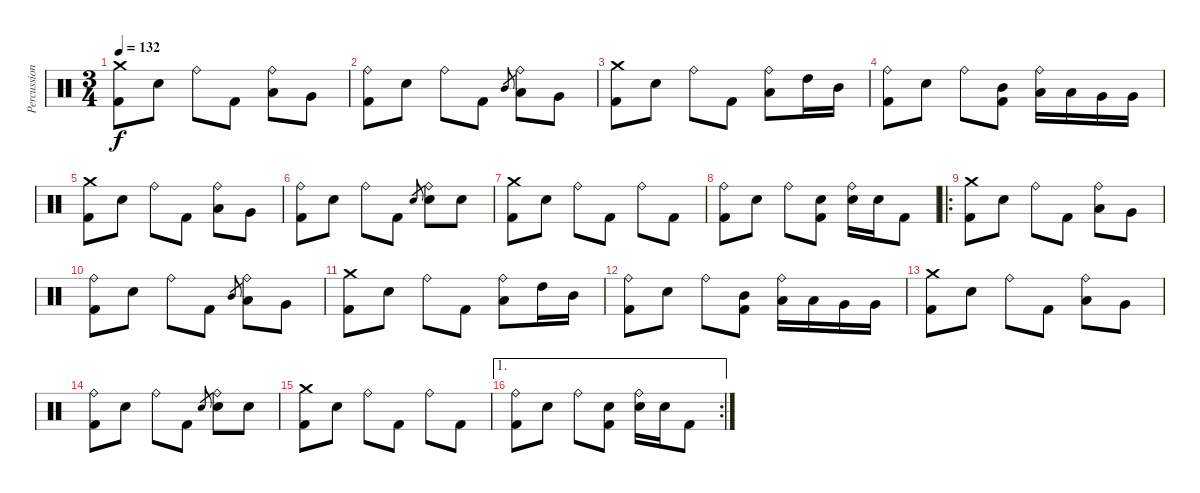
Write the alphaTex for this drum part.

\track ("Percussion" "Percussion") {instrument percussion}
\staff {score}
\articulation defaults
\ts (3 4)
\tempo 132
\clef neutral
\ks c
("Crash medium (hit)" "Kick (hit) 2").8{dy f} "Electric Snare (hit)".8 "Ride (bell)".8 "Kick (hit) 2".8 ("Ride (bell)" "Low Tom (hit)").8 "Very Low Tom (hit)".8 |
("Ride (bell)" "Kick (hit) 2").8 "Electric Snare (hit)".8 "Ride (bell)".8 "Kick (hit) 2".8 "Mid Tom (hit)".8{gr} ("Ride (bell)" "Low Tom (hit)").8 "Very Low Tom (hit)".8 |
("Crash medium (hit)" "Kick (hit) 2").8 "Electric Snare (hit)".8 "Ride (bell)".8 "Kick (hit) 2".8 ("Ride (bell)" "Low Tom (hit)").8 "High Tom (hit)".16 "Mid Tom (hit)".16 |
("Ride (bell)" "Kick (hit) 2").8 "Electric Snare (hit)".8 "Ride (bell)".8 ("Mid Tom (hit)" "Kick (hit) 2").8 ("Ride (bell)" "Low Tom (hit)").16 "Low Tom (hit)".16 "Very Low Tom (hit)".16 "Very Low Tom (hit)".16 |
("Crash medium (hit)" "Kick (hit) 2").8 "Electric Snare (hit)".8 "Ride (bell)".8 "Kick (hit) 2".8 ("Ride (bell)" "Low Tom (hit)").8 "Very Low Tom (hit)".8 |
("Ride (bell)" "Kick (hit) 2").8 "Electric Snare (hit)".8 "Ride (bell)".8 "Kick (hit) 2".8 "Electric Snare (hit)".8{gr} ("Ride (bell)" "Electric Snare (hit)").8 "Electric Snare (hit)".8 |
("Crash medium (hit)" "Kick (hit) 2").8 "Electric Snare (hit)".8 "Ride (bell)".8 "Kick (hit) 2".8 "Ride (bell)".8 "Kick (hit) 2".8 |
("Ride (bell)" "Kick (hit) 2").8 "Electric Snare (hit)".8 "Ride (bell)".8 ("Electric Snare (hit)" "Kick (hit) 2").8 ("Ride (bell)" "Electric Snare (hit)").16 "Electric Snare (hit)".16 "Kick (hit) 2".8 |
\ro
("Crash medium (hit)" "Kick (hit) 2").8 "Electric Snare (hit)".8 "Ride (bell)".8 "Kick (hit) 2".8 ("Ride (bell)" "Low Tom (hit)").8 "Very Low Tom (hit)".8 |
("Ride (bell)" "Kick (hit) 2").8 "Electric Snare (hit)".8 "Ride (bell)".8 "Kick (hit) 2".8 "Mid Tom (hit)".8{gr} ("Ride (bell)" "Low Tom (hit)").8 "Very Low Tom (hit)".8 |
("Crash medium (hit)" "Kick (hit) 2").8 "Electric Snare (hit)".8 "Ride (bell)".8 "Kick (hit) 2".8 ("Ride (bell)" "Low Tom (hit)").8 "High Tom (hit)".16 "Mid Tom (hit)".16 |
("Ride (bell)" "Kick (hit) 2").8 "Electric Snare (hit)".8 "Ride (bell)".8 ("Mid Tom (hit)" "Kick (hit) 2").8 ("Ride (bell)" "Low Tom (hit)").16 "Low Tom (hit)".16 "Very Low Tom (hit)".16 "Very Low Tom (hit)".16 |
("Crash medium (hit)" "Kick (hit) 2").8 "Electric Snare (hit)".8 "Ride (bell)".8 "Kick (hit) 2".8 ("Ride (bell)" "Low Tom (hit)").8 "Very Low Tom (hit)".8 |
("Ride (bell)" "Kick (hit) 2").8 "Electric Snare (hit)".8 "Ride (bell)".8 "Kick (hit) 2".8 "Electric Snare (hit)".8{gr} ("Ride (bell)" "Electric Snare (hit)").8 "Electric Snare (hit)".8 |
("Crash medium (hit)" "Kick (hit) 2").8 "Electric Snare (hit)".8 "Ride (bell)".8 "Kick (hit) 2".8 "Ride (bell)".8 "Kick (hit) 2".8 |
\ae 1
\rc 2
("Ride (bell)" "Kick (hit) 2").8 "Electric Snare (hit)".8 "Ride (bell)".8 ("Electric Snare (hit)" "Kick (hit) 2").8 ("Ride (bell)" "Electric Snare (hit)").16 "Electric Snare (hit)".16 "Kick (hit) 2".8
